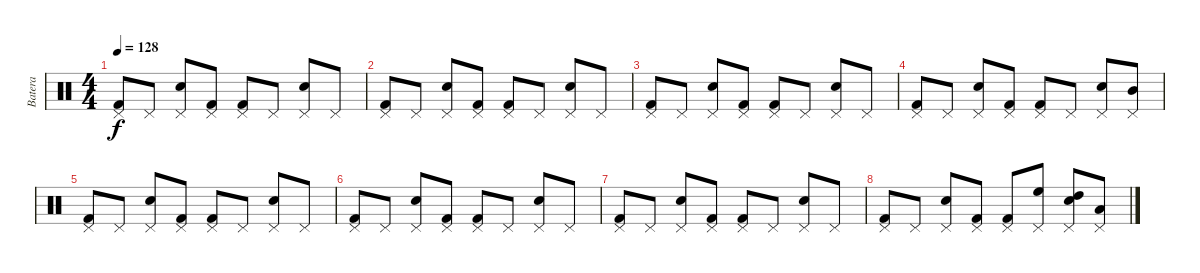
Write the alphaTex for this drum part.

\track ("Batera" "Batera") {instrument percussion}
\staff {score}
\articulation defaults
\ts (4 4)
\tempo 128
\clef neutral
\ks c
("Pedal Hi-Hat (hit)" "Kick (hit) 2").8{dy f} "Pedal Hi-Hat (hit)".8 ("Pedal Hi-Hat (hit)" "Snare (hit) 2").8 ("Pedal Hi-Hat (hit)" "Kick (hit) 2").8 ("Pedal Hi-Hat (hit)" "Kick (hit) 2").8 "Pedal Hi-Hat (hit)".8 ("Pedal Hi-Hat (hit)" "Snare (hit) 2").8 "Pedal Hi-Hat (hit)".8 |
("Pedal Hi-Hat (hit)" "Kick (hit) 2").8 "Pedal Hi-Hat (hit)".8 ("Pedal Hi-Hat (hit)" "Snare (hit) 2").8 ("Pedal Hi-Hat (hit)" "Kick (hit) 2").8 ("Pedal Hi-Hat (hit)" "Kick (hit) 2").8 "Pedal Hi-Hat (hit)".8 ("Pedal Hi-Hat (hit)" "Snare (hit) 2").8 "Pedal Hi-Hat (hit)".8 |
("Pedal Hi-Hat (hit)" "Kick (hit) 2").8 "Pedal Hi-Hat (hit)".8 ("Pedal Hi-Hat (hit)" "Snare (hit) 2").8 ("Pedal Hi-Hat (hit)" "Kick (hit) 2").8 ("Pedal Hi-Hat (hit)" "Kick (hit) 2").8 "Pedal Hi-Hat (hit)".8 ("Pedal Hi-Hat (hit)" "Snare (hit) 2").8 "Pedal Hi-Hat (hit)".8 |
("Pedal Hi-Hat (hit)" "Kick (hit) 2").8 "Pedal Hi-Hat (hit)".8 ("Pedal Hi-Hat (hit)" "Snare (hit) 2").8 ("Pedal Hi-Hat (hit)" "Kick (hit) 2").8 ("Pedal Hi-Hat (hit)" "Kick (hit) 2").8 "Pedal Hi-Hat (hit)".8 ("Pedal Hi-Hat (hit)" "Snare (hit) 2").8 ("Mid Tom (hit)" "Pedal Hi-Hat (hit)").8 |
("Pedal Hi-Hat (hit)" "Kick (hit) 2").8 "Pedal Hi-Hat (hit)".8 ("Pedal Hi-Hat (hit)" "Snare (hit) 2").8 ("Pedal Hi-Hat (hit)" "Kick (hit) 2").8 ("Pedal Hi-Hat (hit)" "Kick (hit) 2").8 "Pedal Hi-Hat (hit)".8 ("Pedal Hi-Hat (hit)" "Snare (hit) 2").8 "Pedal Hi-Hat (hit)".8 |
("Pedal Hi-Hat (hit)" "Kick (hit) 2").8 "Pedal Hi-Hat (hit)".8 ("Pedal Hi-Hat (hit)" "Snare (hit) 2").8 ("Pedal Hi-Hat (hit)" "Kick (hit) 2").8 ("Pedal Hi-Hat (hit)" "Kick (hit) 2").8 "Pedal Hi-Hat (hit)".8 ("Pedal Hi-Hat (hit)" "Snare (hit) 2").8 "Pedal Hi-Hat (hit)".8 |
("Pedal Hi-Hat (hit)" "Kick (hit) 2").8 "Pedal Hi-Hat (hit)".8 ("Pedal Hi-Hat (hit)" "Snare (hit) 2").8 ("Pedal Hi-Hat (hit)" "Kick (hit) 2").8 ("Pedal Hi-Hat (hit)" "Kick (hit) 2").8 "Pedal Hi-Hat (hit)".8 ("Pedal Hi-Hat (hit)" "Snare (hit) 2").8 "Pedal Hi-Hat (hit)".8 |
("Pedal Hi-Hat (hit)" "Kick (hit) 2").8 "Pedal Hi-Hat (hit)".8 ("Pedal Hi-Hat (hit)" "Snare (hit) 2").8 ("Pedal Hi-Hat (hit)" "Kick (hit) 2").8 ("Pedal Hi-Hat (hit)" "Kick (hit) 2").8 ("High Floor Tom (hit)" "Pedal Hi-Hat (hit)").8 ("High Tom (hit)" "Pedal Hi-Hat (hit)" "Snare (hit) 2").8 ("Low Tom (hit)" "Pedal Hi-Hat (hit)").8
